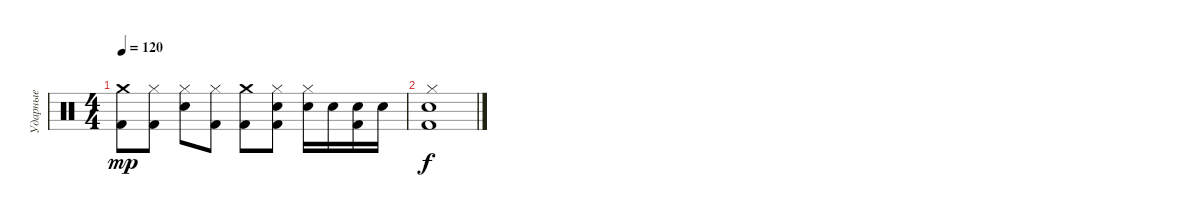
\track ("Ударные" "Ударные") {instrument percussion}
\staff {score}
\articulation defaults
\ts (4 4)
\tempo 120
\clef neutral
\ks c
("Kick (hit) 2" "Crash medium (hit)").8{dy mp} ("Kick (hit) 2" "Hi-Hat (closed)").8 ("Snare (hit) 2" "Hi-Hat (closed)").8 ("Kick (hit) 2" "Hi-Hat (closed)").8 ("Kick (hit) 2" "Crash medium (hit)").8 ("Kick (hit) 2" "Snare (hit) 2" "Hi-Hat (closed)").8 ("Snare (hit) 2" "Hi-Hat (closed)").16 "Snare (hit) 2".16 ("Kick (hit) 2" "Snare (hit) 2").16 "Snare (hit) 2".16 |
("Kick (hit) 2" "Hi-Hat (closed)" "Snare (hit) 2").1{dy f}
